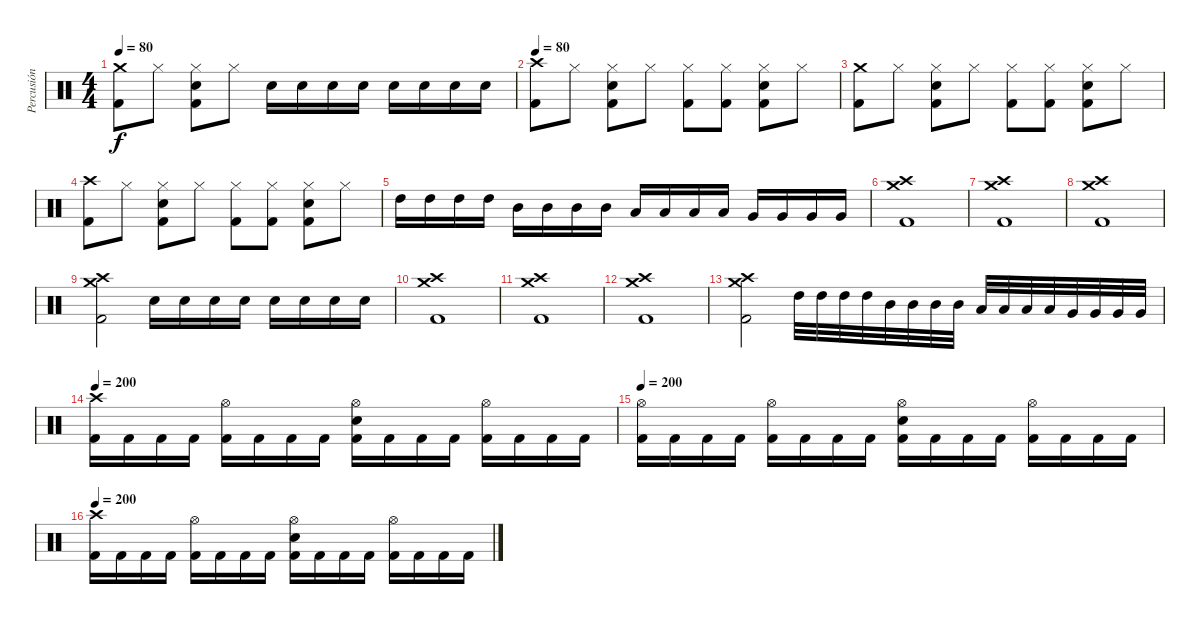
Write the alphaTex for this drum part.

\track ("Percusión" "Percusión") {instrument percussion}
\staff {score}
\articulation defaults
\ts (4 4)
\tempo 80
\clef neutral
\ks c
("Crash medium (hit)" "Kick (hit) 2").8{dy f} "Hi-Hat (closed)".8 ("Hi-Hat (closed)" "Kick (hit) 2" "Snare (hit) 2").8 "Hi-Hat (closed)".8 "Snare (hit) 2".16 "Snare (hit) 2".16 "Snare (hit) 2".16 "Snare (hit) 2".16 "Snare (hit) 2".16 "Snare (hit) 2".16 "Snare (hit) 2".16 "Snare (hit) 2".16 |
\tempo 80
("Crash high (hit)" "Kick (hit) 2").8 "Hi-Hat (closed)".8 ("Hi-Hat (closed)" "Kick (hit) 2" "Snare (hit) 2").8 "Hi-Hat (closed)".8 ("Hi-Hat (closed)" "Kick (hit) 2").8 ("Hi-Hat (closed)" "Kick (hit) 2").8 ("Hi-Hat (closed)" "Kick (hit) 2" "Snare (hit) 2").8 "Hi-Hat (closed)".8 |
("Crash medium (hit)" "Kick (hit) 2").8 "Hi-Hat (closed)".8 ("Hi-Hat (closed)" "Kick (hit) 2" "Snare (hit) 2").8 "Hi-Hat (closed)".8 ("Hi-Hat (closed)" "Kick (hit) 2").8 ("Hi-Hat (closed)" "Kick (hit) 2").8 ("Hi-Hat (closed)" "Kick (hit) 2" "Snare (hit) 2").8 "Hi-Hat (closed)".8 |
("Crash high (hit)" "Kick (hit) 2").8 "Hi-Hat (closed)".8 ("Hi-Hat (closed)" "Kick (hit) 2" "Snare (hit) 2").8 "Hi-Hat (closed)".8 ("Hi-Hat (closed)" "Kick (hit) 2").8 ("Hi-Hat (closed)" "Kick (hit) 2").8 ("Hi-Hat (closed)" "Kick (hit) 2" "Snare (hit) 2").8 "Hi-Hat (closed)".8 |
"High Tom (hit)".16 "High Tom (hit)".16 "High Tom (hit)".16 "High Tom (hit)".16 "Mid Tom (hit)".16 "Mid Tom (hit)".16 "Mid Tom (hit)".16 "Mid Tom (hit)".16 "Low Tom (hit)".16 "Low Tom (hit)".16 "Low Tom (hit)".16 "Low Tom (hit)".16 "Very Low Tom (hit)".16 "Very Low Tom (hit)".16 "Very Low Tom (hit)".16 "Very Low Tom (hit)".16 |
("Crash high (hit)" "Crash medium (hit)" "Kick (hit) 2").1 |
("Crash high (hit)" "Crash medium (hit)" "Kick (hit) 2").1 |
("Crash high (hit)" "Crash medium (hit)" "Kick (hit) 2").1 |
("Crash high (hit)" "Crash medium (hit)" "Kick (hit) 2").2 "Snare (hit) 2".16 "Snare (hit) 2".16 "Snare (hit) 2".16 "Snare (hit) 2".16 "Snare (hit) 2".16 "Snare (hit) 2".16 "Snare (hit) 2".16 "Snare (hit) 2".16 |
("Crash high (hit)" "Crash medium (hit)" "Kick (hit) 2").1 |
("Crash high (hit)" "Crash medium (hit)" "Kick (hit) 2").1 |
("Crash high (hit)" "Crash medium (hit)" "Kick (hit) 2").1 |
("Crash high (hit)" "Crash medium (hit)" "Kick (hit) 2").2 "High Tom (hit)".32 "High Tom (hit)".32 "High Tom (hit)".32 "High Tom (hit)".32 "Mid Tom (hit)".32 "Mid Tom (hit)".32 "Mid Tom (hit)".32 "Mid Tom (hit)".32 "Low Tom (hit)".32 "Low Tom (hit)".32 "Low Tom (hit)".32 "Low Tom (hit)".32 "Very Low Tom (hit)".32 "Very Low Tom (hit)".32 "Very Low Tom (hit)".32 "Very Low Tom (hit)".32 |
\tempo 200
("Kick (hit) 2" "Crash high (hit)").16 "Kick (hit) 2".16 "Kick (hit) 2".16 "Kick (hit) 2".16 ("Kick (hit) 2" "Hi-Hat (open)").16 "Kick (hit) 2".16 "Kick (hit) 2".16 "Kick (hit) 2".16 ("Kick (hit) 2" "Hi-Hat (open)" "Snare (hit) 2").16 "Kick (hit) 2".16 "Kick (hit) 2".16 "Kick (hit) 2".16 ("Kick (hit) 2" "Hi-Hat (open)").16 "Kick (hit) 2".16 "Kick (hit) 2".16 "Kick (hit) 2".16 |
\tempo 200
("Kick (hit) 2" "Hi-Hat (open)").16 "Kick (hit) 2".16 "Kick (hit) 2".16 "Kick (hit) 2".16 ("Kick (hit) 2" "Hi-Hat (open)").16 "Kick (hit) 2".16 "Kick (hit) 2".16 "Kick (hit) 2".16 ("Kick (hit) 2" "Hi-Hat (open)" "Snare (hit) 2").16 "Kick (hit) 2".16 "Kick (hit) 2".16 "Kick (hit) 2".16 ("Kick (hit) 2" "Hi-Hat (open)").16 "Kick (hit) 2".16 "Kick (hit) 2".16 "Kick (hit) 2".16 |
\tempo 200
("Kick (hit) 2" "Crash high (hit)").16 "Kick (hit) 2".16 "Kick (hit) 2".16 "Kick (hit) 2".16 ("Kick (hit) 2" "Hi-Hat (open)").16 "Kick (hit) 2".16 "Kick (hit) 2".16 "Kick (hit) 2".16 ("Kick (hit) 2" "Hi-Hat (open)" "Snare (hit) 2").16 "Kick (hit) 2".16 "Kick (hit) 2".16 "Kick (hit) 2".16 ("Kick (hit) 2" "Hi-Hat (open)").16 "Kick (hit) 2".16 "Kick (hit) 2".16 "Kick (hit) 2".16
